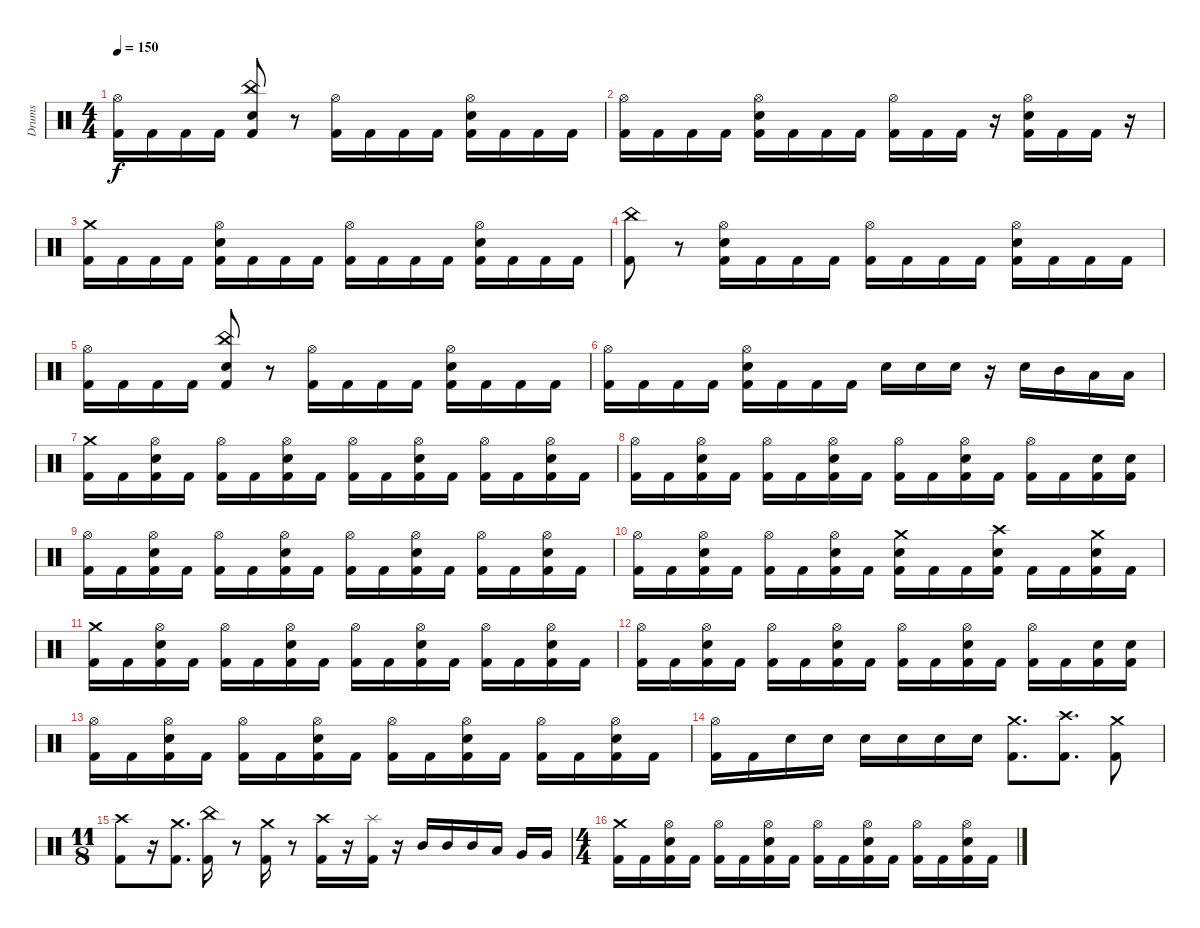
\track ("Drums" "Drums") {instrument percussion}
\staff {score}
\articulation defaults
\ts (4 4)
\tempo 150
\clef neutral
\ks c
("Hi-Hat (open)" "Kick (hit) 2").16{dy f} "Kick (hit) 2".16 "Kick (hit) 2".16 "Kick (hit) 2".16 ("China (hit)" "Electric Snare (hit)" "Kick (hit) 2").8 r.8 ("Hi-Hat (open)" "Kick (hit) 2").16 "Kick (hit) 2".16 "Kick (hit) 2".16 "Kick (hit) 2".16 ("Hi-Hat (open)" "Electric Snare (hit)" "Kick (hit) 2").16 "Kick (hit) 2".16 "Kick (hit) 2".16 "Kick (hit) 2".16 |
("Hi-Hat (open)" "Kick (hit) 2").16 "Kick (hit) 2".16 "Kick (hit) 2".16 "Kick (hit) 2".16 ("Hi-Hat (open)" "Electric Snare (hit)" "Kick (hit) 2").16 "Kick (hit) 2".16 "Kick (hit) 2".16 "Kick (hit) 2".16 ("Hi-Hat (open)" "Kick (hit) 2").16 "Kick (hit) 2".16 "Kick (hit) 2".16 r.16 ("Electric Snare (hit)" "Hi-Hat (open)" "Kick (hit) 2").16 "Kick (hit) 2".16 "Kick (hit) 2".16 r.16 |
("Crash medium (hit)" "Kick (hit) 2").16 "Kick (hit) 2".16 "Kick (hit) 2".16 "Kick (hit) 2".16 ("Hi-Hat (open)" "Electric Snare (hit)" "Kick (hit) 2").16 "Kick (hit) 2".16 "Kick (hit) 2".16 "Kick (hit) 2".16 ("Hi-Hat (open)" "Kick (hit) 2").16 "Kick (hit) 2".16 "Kick (hit) 2".16 "Kick (hit) 2".16 ("Hi-Hat (open)" "Electric Snare (hit)" "Kick (hit) 2").16 "Kick (hit) 2".16 "Kick (hit) 2".16 "Kick (hit) 2".16 |
("China (hit)" "Kick (hit) 2").8 r.8 ("Electric Snare (hit)" "Hi-Hat (open)" "Kick (hit) 2").16 "Kick (hit) 2".16 "Kick (hit) 2".16 "Kick (hit) 2".16 ("Hi-Hat (open)" "Kick (hit) 2").16 "Kick (hit) 2".16 "Kick (hit) 2".16 "Kick (hit) 2".16 ("Electric Snare (hit)" "Hi-Hat (open)" "Kick (hit) 2").16 "Kick (hit) 2".16 "Kick (hit) 2".16 "Kick (hit) 2".16 |
("Hi-Hat (open)" "Kick (hit) 2").16 "Kick (hit) 2".16 "Kick (hit) 2".16 "Kick (hit) 2".16 ("China (hit)" "Electric Snare (hit)" "Kick (hit) 2").8 r.8 ("Hi-Hat (open)" "Kick (hit) 2").16 "Kick (hit) 2".16 "Kick (hit) 2".16 "Kick (hit) 2".16 ("Hi-Hat (open)" "Electric Snare (hit)" "Kick (hit) 2").16 "Kick (hit) 2".16 "Kick (hit) 2".16 "Kick (hit) 2".16 |
("Hi-Hat (open)" "Kick (hit) 2").16 "Kick (hit) 2".16 "Kick (hit) 2".16 "Kick (hit) 2".16 ("Hi-Hat (open)" "Electric Snare (hit)" "Kick (hit) 2").16 "Kick (hit) 2".16 "Kick (hit) 2".16 "Kick (hit) 2".16 "Electric Snare (hit)".16 "Electric Snare (hit)".16 "Electric Snare (hit)".16 r.16 "Electric Snare (hit)".16 "Mid Tom (hit)".16 "Low Tom (hit)".16 "Low Floor Tom (hit)".16 |
("Crash medium (hit)" "Kick (hit) 2").16 "Kick (hit) 2".16 ("Hi-Hat (open)" "Electric Snare (hit)" "Kick (hit) 2").16 "Kick (hit) 2".16 ("Hi-Hat (open)" "Kick (hit) 2").16 "Kick (hit) 2".16 ("Hi-Hat (open)" "Electric Snare (hit)" "Kick (hit) 2").16 "Kick (hit) 2".16 ("Hi-Hat (open)" "Kick (hit) 2").16 "Kick (hit) 2".16 ("Hi-Hat (open)" "Electric Snare (hit)" "Kick (hit) 2").16 "Kick (hit) 2".16 ("Hi-Hat (open)" "Kick (hit) 2").16 "Kick (hit) 2".16 ("Hi-Hat (open)" "Electric Snare (hit)" "Kick (hit) 2").16 "Kick (hit) 2".16 |
("Hi-Hat (open)" "Kick (hit) 2").16 "Kick (hit) 2".16 ("Hi-Hat (open)" "Electric Snare (hit)" "Kick (hit) 2").16 "Kick (hit) 2".16 ("Hi-Hat (open)" "Kick (hit) 2").16 "Kick (hit) 2".16 ("Hi-Hat (open)" "Electric Snare (hit)" "Kick (hit) 2").16 "Kick (hit) 2".16 ("Hi-Hat (open)" "Kick (hit) 2").16 "Kick (hit) 2".16 ("Hi-Hat (open)" "Electric Snare (hit)" "Kick (hit) 2").16 "Kick (hit) 2".16 ("Hi-Hat (open)" "Kick (hit) 2").16 "Kick (hit) 2".16 ("Electric Snare (hit)" "Kick (hit) 2").16 ("Electric Snare (hit)" "Kick (hit) 2").16 |
("Hi-Hat (open)" "Kick (hit) 2").16 "Kick (hit) 2".16 ("Hi-Hat (open)" "Electric Snare (hit)" "Kick (hit) 2").16 "Kick (hit) 2".16 ("Hi-Hat (open)" "Kick (hit) 2").16 "Kick (hit) 2".16 ("Hi-Hat (open)" "Electric Snare (hit)" "Kick (hit) 2").16 "Kick (hit) 2".16 ("Hi-Hat (open)" "Kick (hit) 2").16 "Kick (hit) 2".16 ("Hi-Hat (open)" "Electric Snare (hit)" "Kick (hit) 2").16 "Kick (hit) 2".16 ("Hi-Hat (open)" "Kick (hit) 2").16 "Kick (hit) 2".16 ("Hi-Hat (open)" "Electric Snare (hit)" "Kick (hit) 2").16 "Kick (hit) 2".16 |
("Hi-Hat (open)" "Kick (hit) 2").16 "Kick (hit) 2".16 ("Hi-Hat (open)" "Electric Snare (hit)" "Kick (hit) 2").16 "Kick (hit) 2".16 ("Hi-Hat (open)" "Kick (hit) 2").16 "Kick (hit) 2".16 ("Hi-Hat (open)" "Electric Snare (hit)" "Kick (hit) 2").16 "Kick (hit) 2".16 ("Electric Snare (hit)" "Crash medium (hit)" "Kick (hit) 2").16 "Kick (hit) 2".16 "Kick (hit) 2".16 ("Electric Snare (hit)" "Crash high (hit)" "Kick (hit) 2").16 "Kick (hit) 2".16 "Kick (hit) 2".16 ("Electric Snare (hit)" "Crash medium (hit)" "Kick (hit) 2").16 "Kick (hit) 2".16 |
("Crash medium (hit)" "Kick (hit) 2").16 "Kick (hit) 2".16 ("Hi-Hat (open)" "Electric Snare (hit)" "Kick (hit) 2").16 "Kick (hit) 2".16 ("Hi-Hat (open)" "Kick (hit) 2").16 "Kick (hit) 2".16 ("Hi-Hat (open)" "Electric Snare (hit)" "Kick (hit) 2").16 "Kick (hit) 2".16 ("Hi-Hat (open)" "Kick (hit) 2").16 "Kick (hit) 2".16 ("Hi-Hat (open)" "Electric Snare (hit)" "Kick (hit) 2").16 "Kick (hit) 2".16 ("Hi-Hat (open)" "Kick (hit) 2").16 "Kick (hit) 2".16 ("Hi-Hat (open)" "Electric Snare (hit)" "Kick (hit) 2").16 "Kick (hit) 2".16 |
("Hi-Hat (open)" "Kick (hit) 2").16 "Kick (hit) 2".16 ("Hi-Hat (open)" "Electric Snare (hit)" "Kick (hit) 2").16 "Kick (hit) 2".16 ("Hi-Hat (open)" "Kick (hit) 2").16 "Kick (hit) 2".16 ("Hi-Hat (open)" "Electric Snare (hit)" "Kick (hit) 2").16 "Kick (hit) 2".16 ("Hi-Hat (open)" "Kick (hit) 2").16 "Kick (hit) 2".16 ("Hi-Hat (open)" "Electric Snare (hit)" "Kick (hit) 2").16 "Kick (hit) 2".16 ("Hi-Hat (open)" "Kick (hit) 2").16 "Kick (hit) 2".16 ("Electric Snare (hit)" "Kick (hit) 2").16 ("Electric Snare (hit)" "Kick (hit) 2").16 |
("Hi-Hat (open)" "Kick (hit) 2").16 "Kick (hit) 2".16 ("Hi-Hat (open)" "Electric Snare (hit)" "Kick (hit) 2").16 "Kick (hit) 2".16 ("Hi-Hat (open)" "Kick (hit) 2").16 "Kick (hit) 2".16 ("Hi-Hat (open)" "Electric Snare (hit)" "Kick (hit) 2").16 "Kick (hit) 2".16 ("Hi-Hat (open)" "Kick (hit) 2").16 "Kick (hit) 2".16 ("Hi-Hat (open)" "Electric Snare (hit)" "Kick (hit) 2").16 "Kick (hit) 2".16 ("Hi-Hat (open)" "Kick (hit) 2").16 "Kick (hit) 2".16 ("Hi-Hat (open)" "Electric Snare (hit)" "Kick (hit) 2").16 "Kick (hit) 2".16 |
("Hi-Hat (open)" "Kick (hit) 2").16 "Kick (hit) 2".16 "Electric Snare (hit)".16 "Electric Snare (hit)".16 "Electric Snare (hit)".16 "Electric Snare (hit)".16 "Electric Snare (hit)".16 "Electric Snare (hit)".16 ("Crash medium (hit)" "Kick (hit) 2").8{d} ("Crash high (hit)" "Kick (hit) 2").8{d} ("Crash medium (hit)" "Kick (hit) 2").8 |
\ts (11 8)
("Crash high (hit)" "Kick (hit) 2").8 r.16 ("Crash medium (hit)" "Kick (hit) 2").8{d} ("China (hit)" "Kick (hit) 2").16 r.8 ("Crash medium (hit)" "Kick (hit) 2").16 r.8 ("Crash high (hit)" "Kick (hit) 2").16 r.16 ("Splash (hit)" "Kick (hit) 2").16 r.16 "Mid Tom (hit)".16 "Mid Tom (hit)".16 "Mid Tom (hit)".16 "Low Tom (hit)".16 "Very Low Tom (hit)".16 "Very Low Tom (hit)".16 |
\ts (4 4)
("Crash medium (hit)" "Kick (hit) 2").16 "Kick (hit) 2".16 ("Hi-Hat (open)" "Electric Snare (hit)" "Kick (hit) 2").16 "Kick (hit) 2".16 ("Hi-Hat (open)" "Kick (hit) 2").16 "Kick (hit) 2".16 ("Hi-Hat (open)" "Electric Snare (hit)" "Kick (hit) 2").16 "Kick (hit) 2".16 ("Hi-Hat (open)" "Kick (hit) 2").16 "Kick (hit) 2".16 ("Hi-Hat (open)" "Electric Snare (hit)" "Kick (hit) 2").16 "Kick (hit) 2".16 ("Hi-Hat (open)" "Kick (hit) 2").16 "Kick (hit) 2".16 ("Hi-Hat (open)" "Electric Snare (hit)" "Kick (hit) 2").16 "Kick (hit) 2".16
